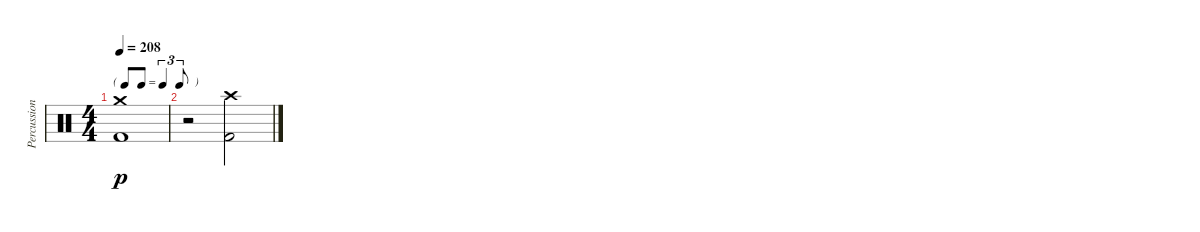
\track ("Percussions" "Percussion") {instrument percussion}
\staff {score}
\articulation defaults
\ts (4 4)
\tf triplet8th
\tempo 208
\clef neutral
\ks c
("Crash medium (hit)" "Kick (hit) 2").1{dy p} |
r.2 ("Crash high (hit)" "Kick (hit) 2").2
